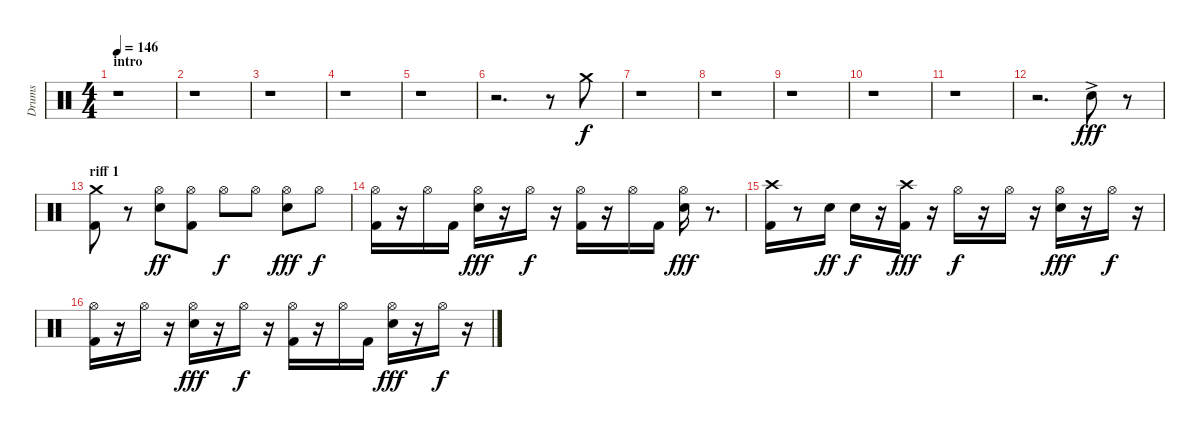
\track ("Drums" "Drums") {instrument percussion}
\staff {score}
\articulation defaults
\ts (4 4)
\section ("" "intro")
\tempo 146
\clef neutral
\ks c
r.1{dy f} |
r.1 |
r.1 |
r.1 |
r.1 |
r.2{d} r.8 "Crash medium (hit)".8 |
r.1 |
r.1 |
r.1 |
r.1 |
r.1 |
r.2{d} "Snare (hit) 2"{ac}.8{dy fff} r.8 |
\section ("" "riff 1")
("Kick (hit) 2" "Crash medium (hit)").8 r.8 ("Hi-Hat (open)" "Snare (hit) 2").8{dy ff} ("Hi-Hat (open)" "Kick (hit) 2").8 "Hi-Hat (open)".8{dy f} "Hi-Hat (open)".8 ("Snare (hit) 2" "Hi-Hat (open)").8{dy fff} "Hi-Hat (open)".8{dy f} |
("Kick (hit) 2" "Hi-Hat (open)").16 r.16 "Hi-Hat (open)".16 "Kick (hit) 2".16 ("Snare (hit) 2" "Hi-Hat (open)").16{dy fff} r.16 "Hi-Hat (open)".16{dy f} r.16 ("Kick (hit) 2" "Hi-Hat (open)").16 r.16 "Hi-Hat (open)".16 "Kick (hit) 2".16 ("Snare (hit) 2" "Hi-Hat (open)").16{dy fff} r.8{d} |
("Kick (hit) 2" "Crash high (hit)").16 r.8 "Snare (hit) 2".16{dy ff} "Snare (hit) 2".16{dy f} r.16 ("Kick (hit) 2" "Crash high (hit)").16{dy fff} r.16 "Hi-Hat (open)".16{dy f} r.16 "Hi-Hat (open)".16 r.16 ("Snare (hit) 2" "Hi-Hat (open)").16{dy fff} r.16 "Hi-Hat (open)".16{dy f} r.16 |
("Kick (hit) 2" "Hi-Hat (open)").16 r.16 "Hi-Hat (open)".16 r.16 ("Snare (hit) 2" "Hi-Hat (open)").16{dy fff} r.16 "Hi-Hat (open)".16{dy f} r.16 ("Kick (hit) 2" "Hi-Hat (open)").16 r.16 "Hi-Hat (open)".16 "Kick (hit) 2".16 ("Snare (hit) 2" "Hi-Hat (open)").16{dy fff} r.16 "Hi-Hat (open)".16{dy f} r.16
